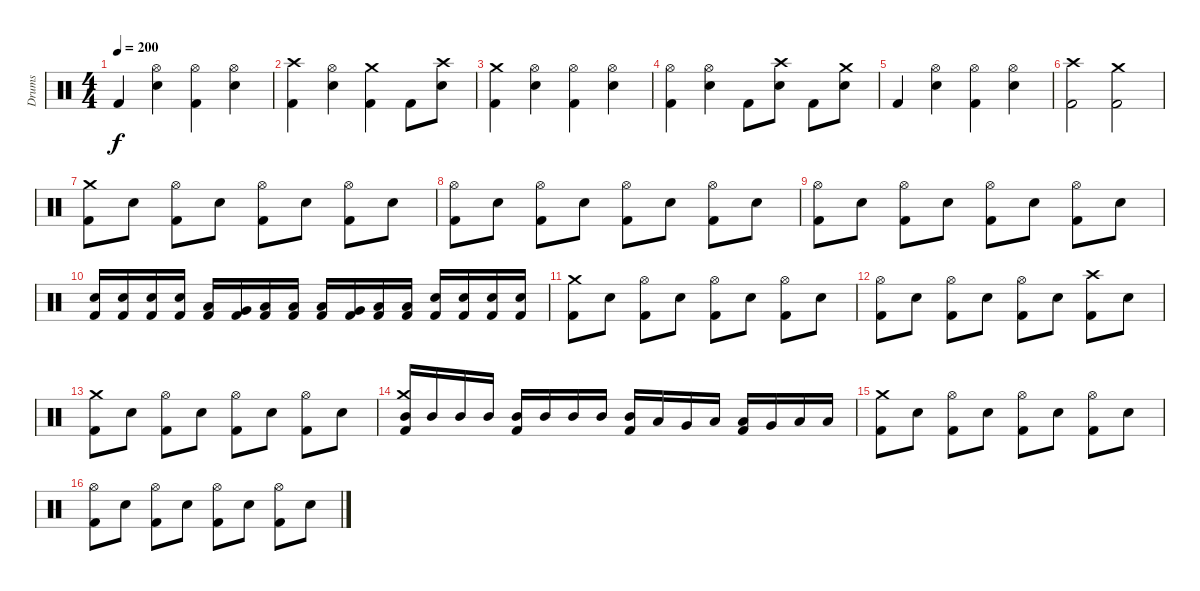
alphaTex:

\track ("Drums" "Drums") {instrument percussion}
\staff {score}
\articulation defaults
\ts (4 4)
\tempo 200
\clef neutral
\ks c "Kick (hit) 2".4{dy f}
("Hi-Hat (open)" "Electric Snare (hit)").4 ("Hi-Hat (open)" "Kick (hit) 2").4 ("Hi-Hat (open)" "Electric Snare (hit)").4 |
("Crash high (hit)" "Kick (hit) 2").4 ("Hi-Hat (open)" "Electric Snare (hit)").4 ("Crash medium (hit)" "Kick (hit) 2").4 "Kick (hit) 2".8 ("Crash high (hit)" "Electric Snare (hit)").8 |
("Crash medium (hit)" "Kick (hit) 2").4 ("Hi-Hat (open)" "Electric Snare (hit)").4 ("Hi-Hat (open)" "Kick (hit) 2").4 ("Hi-Hat (open)" "Electric Snare (hit)").4 |
("Hi-Hat (open)" "Kick (hit) 2").4 ("Hi-Hat (open)" "Electric Snare (hit)").4 "Kick (hit) 2".8 ("Crash high (hit)" "Electric Snare (hit)").8 "Kick (hit) 2".8 ("Crash medium (hit)" "Electric Snare (hit)").8 |
"Kick (hit) 2".4 ("Hi-Hat (open)" "Electric Snare (hit)").4 ("Hi-Hat (open)" "Kick (hit) 2").4 ("Hi-Hat (open)" "Electric Snare (hit)").4 |
("Crash high (hit)" "Kick (hit) 2").2 ("Crash medium (hit)" "Kick (hit) 2").2 |
("Crash medium (hit)" "Kick (hit) 2").8 "Electric Snare (hit)".8 ("Hi-Hat (open)" "Kick (hit) 2").8 "Electric Snare (hit)".8 ("Hi-Hat (open)" "Kick (hit) 2").8 "Electric Snare (hit)".8 ("Hi-Hat (open)" "Kick (hit) 2").8 "Electric Snare (hit)".8 |
("Hi-Hat (open)" "Kick (hit) 2").8 "Electric Snare (hit)".8 ("Hi-Hat (open)" "Kick (hit) 2").8 "Electric Snare (hit)".8 ("Hi-Hat (open)" "Kick (hit) 2").8 "Electric Snare (hit)".8 ("Hi-Hat (open)" "Kick (hit) 2").8 "Electric Snare (hit)".8 |
("Hi-Hat (open)" "Kick (hit) 2").8 "Electric Snare (hit)".8 ("Hi-Hat (open)" "Kick (hit) 2").8 "Electric Snare (hit)".8 ("Hi-Hat (open)" "Kick (hit) 2").8 "Electric Snare (hit)".8 ("Hi-Hat (open)" "Kick (hit) 2").8 "Electric Snare (hit)".8 |
("Electric Snare (hit)" "Kick (hit) 2").16 ("Electric Snare (hit)" "Kick (hit) 2").16 ("Electric Snare (hit)" "Kick (hit) 2").16 ("Electric Snare (hit)" "Kick (hit) 2").16 ("Low Tom (hit)" "Kick (hit) 2").16 ("Very Low Tom (hit)" "Kick (hit) 2").16 ("Low Floor Tom (hit)" "Kick (hit) 2").16 ("Low Floor Tom (hit)" "Kick (hit) 2").16 ("Low Tom (hit)" "Kick (hit) 2").16 ("Very Low Tom (hit)" "Kick (hit) 2").16 ("Low Floor Tom (hit)" "Kick (hit) 2").16 ("Low Floor Tom (hit)" "Kick (hit) 2").16 ("Electric Snare (hit)" "Kick (hit) 2").16 ("Electric Snare (hit)" "Kick (hit) 2").16 ("Electric Snare (hit)" "Kick (hit) 2").16 ("Electric Snare (hit)" "Kick (hit) 2").16 |
("Crash medium (hit)" "Kick (hit) 2").8 "Electric Snare (hit)".8 ("Hi-Hat (open)" "Kick (hit) 2").8 "Electric Snare (hit)".8 ("Hi-Hat (open)" "Kick (hit) 2").8 "Electric Snare (hit)".8 ("Hi-Hat (open)" "Kick (hit) 2").8 "Electric Snare (hit)".8 |
("Hi-Hat (open)" "Kick (hit) 2").8 "Electric Snare (hit)".8 ("Hi-Hat (open)" "Kick (hit) 2").8 "Electric Snare (hit)".8 ("Hi-Hat (open)" "Kick (hit) 2").8 "Electric Snare (hit)".8 ("Crash high (hit)" "Kick (hit) 2").8 "Electric Snare (hit)".8 |
("Crash medium (hit)" "Kick (hit) 2").8 "Electric Snare (hit)".8 ("Hi-Hat (open)" "Kick (hit) 2").8 "Electric Snare (hit)".8 ("Hi-Hat (open)" "Kick (hit) 2").8 "Electric Snare (hit)".8 ("Hi-Hat (open)" "Kick (hit) 2").8 "Electric Snare (hit)".8 |
("Crash medium (hit)" "Mid Tom (hit)" "Kick (hit) 2").16 "Mid Tom (hit)".16 "Mid Tom (hit)".16 "Mid Tom (hit)".16 ("Mid Tom (hit)" "Kick (hit) 2").16 "Mid Tom (hit)".16 "Mid Tom (hit)".16 "Mid Tom (hit)".16 ("Mid Tom (hit)" "Kick (hit) 2").16 "Low Tom (hit)".16 "Very Low Tom (hit)".16 "Low Floor Tom (hit)".16 ("Low Tom (hit)" "Kick (hit) 2").16 "Very Low Tom (hit)".16 "Low Floor Tom (hit)".16 "Low Floor Tom (hit)".16 |
("Crash medium (hit)" "Kick (hit) 2").8 "Electric Snare (hit)".8 ("Hi-Hat (open)" "Kick (hit) 2").8 "Electric Snare (hit)".8 ("Hi-Hat (open)" "Kick (hit) 2").8 "Electric Snare (hit)".8 ("Hi-Hat (open)" "Kick (hit) 2").8 "Electric Snare (hit)".8 |
("Hi-Hat (open)" "Kick (hit) 2").8 "Electric Snare (hit)".8 ("Hi-Hat (open)" "Kick (hit) 2").8 "Electric Snare (hit)".8 ("Hi-Hat (open)" "Kick (hit) 2").8 "Electric Snare (hit)".8 ("Hi-Hat (open)" "Kick (hit) 2").8 "Electric Snare (hit)".8
